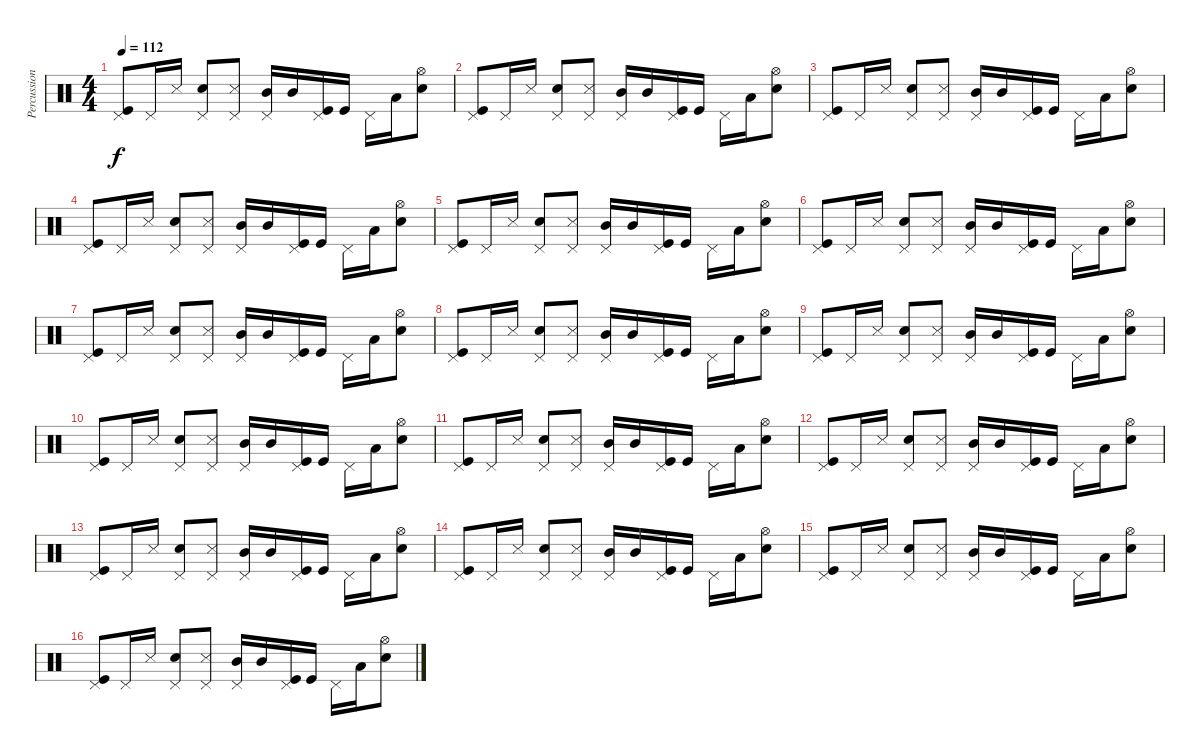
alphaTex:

\track ("Percussion" "Percussion") {instrument percussion}
\staff {score}
\articulation defaults
\ts (4 4)
\tempo 112
\clef neutral
\ks c
("Pedal Hi-Hat (hit)" "Kick (hit)").8{dy f} "Pedal Hi-Hat (hit)".16 "Snare (side stick) 3".16 ("Pedal Hi-Hat (hit)" "Electric Snare (hit)").8 ("Pedal Hi-Hat (hit)" "Snare (side stick) 3").8 ("Pedal Hi-Hat (hit)" "Mid Tom (hit)").16 "Mid Tom (hit)".16 ("Pedal Hi-Hat (hit)" "Kick (hit)").16 "Kick (hit)".16 "Pedal Hi-Hat (hit)".16 "Low Tom (hit)".16 ("Hi-Hat (open)" "Electric Snare (hit)").8 |
("Pedal Hi-Hat (hit)" "Kick (hit)").8 "Pedal Hi-Hat (hit)".16 "Snare (side stick) 3".16 ("Pedal Hi-Hat (hit)" "Electric Snare (hit)").8 ("Pedal Hi-Hat (hit)" "Snare (side stick) 3").8 ("Pedal Hi-Hat (hit)" "Mid Tom (hit)").16 "Mid Tom (hit)".16 ("Pedal Hi-Hat (hit)" "Kick (hit)").16 "Kick (hit)".16 "Pedal Hi-Hat (hit)".16 "Low Tom (hit)".16 ("Hi-Hat (open)" "Electric Snare (hit)").8 |
("Pedal Hi-Hat (hit)" "Kick (hit)").8 "Pedal Hi-Hat (hit)".16 "Snare (side stick) 3".16 ("Pedal Hi-Hat (hit)" "Electric Snare (hit)").8 ("Pedal Hi-Hat (hit)" "Snare (side stick) 3").8 ("Pedal Hi-Hat (hit)" "Mid Tom (hit)").16 "Mid Tom (hit)".16 ("Pedal Hi-Hat (hit)" "Kick (hit)").16 "Kick (hit)".16 "Pedal Hi-Hat (hit)".16 "Low Tom (hit)".16 ("Hi-Hat (open)" "Electric Snare (hit)").8 |
("Pedal Hi-Hat (hit)" "Kick (hit)").8 "Pedal Hi-Hat (hit)".16 "Snare (side stick) 3".16 ("Pedal Hi-Hat (hit)" "Electric Snare (hit)").8 ("Pedal Hi-Hat (hit)" "Snare (side stick) 3").8 ("Pedal Hi-Hat (hit)" "Mid Tom (hit)").16 "Mid Tom (hit)".16 ("Pedal Hi-Hat (hit)" "Kick (hit)").16 "Kick (hit)".16 "Pedal Hi-Hat (hit)".16 "Low Tom (hit)".16 ("Hi-Hat (open)" "Electric Snare (hit)").8 |
("Pedal Hi-Hat (hit)" "Kick (hit)").8 "Pedal Hi-Hat (hit)".16 "Snare (side stick) 3".16 ("Pedal Hi-Hat (hit)" "Electric Snare (hit)").8 ("Pedal Hi-Hat (hit)" "Snare (side stick) 3").8 ("Pedal Hi-Hat (hit)" "Mid Tom (hit)").16 "Mid Tom (hit)".16 ("Pedal Hi-Hat (hit)" "Kick (hit)").16 "Kick (hit)".16 "Pedal Hi-Hat (hit)".16 "Low Tom (hit)".16 ("Hi-Hat (open)" "Electric Snare (hit)").8 |
("Pedal Hi-Hat (hit)" "Kick (hit)").8 "Pedal Hi-Hat (hit)".16 "Snare (side stick) 3".16 ("Pedal Hi-Hat (hit)" "Electric Snare (hit)").8 ("Pedal Hi-Hat (hit)" "Snare (side stick) 3").8 ("Pedal Hi-Hat (hit)" "Mid Tom (hit)").16 "Mid Tom (hit)".16 ("Pedal Hi-Hat (hit)" "Kick (hit)").16 "Kick (hit)".16 "Pedal Hi-Hat (hit)".16 "Low Tom (hit)".16 ("Hi-Hat (open)" "Electric Snare (hit)").8 |
("Pedal Hi-Hat (hit)" "Kick (hit)").8 "Pedal Hi-Hat (hit)".16 "Snare (side stick) 3".16 ("Pedal Hi-Hat (hit)" "Electric Snare (hit)").8 ("Pedal Hi-Hat (hit)" "Snare (side stick) 3").8 ("Pedal Hi-Hat (hit)" "Mid Tom (hit)").16 "Mid Tom (hit)".16 ("Pedal Hi-Hat (hit)" "Kick (hit)").16 "Kick (hit)".16 "Pedal Hi-Hat (hit)".16 "Low Tom (hit)".16 ("Hi-Hat (open)" "Electric Snare (hit)").8 |
("Pedal Hi-Hat (hit)" "Kick (hit)").8 "Pedal Hi-Hat (hit)".16 "Snare (side stick) 3".16 ("Pedal Hi-Hat (hit)" "Electric Snare (hit)").8 ("Pedal Hi-Hat (hit)" "Snare (side stick) 3").8 ("Pedal Hi-Hat (hit)" "Mid Tom (hit)").16 "Mid Tom (hit)".16 ("Pedal Hi-Hat (hit)" "Kick (hit)").16 "Kick (hit)".16 "Pedal Hi-Hat (hit)".16 "Low Tom (hit)".16 ("Hi-Hat (open)" "Electric Snare (hit)").8 |
("Pedal Hi-Hat (hit)" "Kick (hit)").8 "Pedal Hi-Hat (hit)".16 "Snare (side stick) 3".16 ("Pedal Hi-Hat (hit)" "Electric Snare (hit)").8 ("Pedal Hi-Hat (hit)" "Snare (side stick) 3").8 ("Pedal Hi-Hat (hit)" "Mid Tom (hit)").16 "Mid Tom (hit)".16 ("Pedal Hi-Hat (hit)" "Kick (hit)").16 "Kick (hit)".16 "Pedal Hi-Hat (hit)".16 "Low Tom (hit)".16 ("Hi-Hat (open)" "Electric Snare (hit)").8 |
("Pedal Hi-Hat (hit)" "Kick (hit)").8 "Pedal Hi-Hat (hit)".16 "Snare (side stick) 3".16 ("Pedal Hi-Hat (hit)" "Electric Snare (hit)").8 ("Pedal Hi-Hat (hit)" "Snare (side stick) 3").8 ("Pedal Hi-Hat (hit)" "Mid Tom (hit)").16 "Mid Tom (hit)".16 ("Pedal Hi-Hat (hit)" "Kick (hit)").16 "Kick (hit)".16 "Pedal Hi-Hat (hit)".16 "Low Tom (hit)".16 ("Hi-Hat (open)" "Electric Snare (hit)").8 |
("Pedal Hi-Hat (hit)" "Kick (hit)").8 "Pedal Hi-Hat (hit)".16 "Snare (side stick) 3".16 ("Pedal Hi-Hat (hit)" "Electric Snare (hit)").8 ("Pedal Hi-Hat (hit)" "Snare (side stick) 3").8 ("Pedal Hi-Hat (hit)" "Mid Tom (hit)").16 "Mid Tom (hit)".16 ("Pedal Hi-Hat (hit)" "Kick (hit)").16 "Kick (hit)".16 "Pedal Hi-Hat (hit)".16 "Low Tom (hit)".16 ("Hi-Hat (open)" "Electric Snare (hit)").8 |
("Pedal Hi-Hat (hit)" "Kick (hit)").8 "Pedal Hi-Hat (hit)".16 "Snare (side stick) 3".16 ("Pedal Hi-Hat (hit)" "Electric Snare (hit)").8 ("Pedal Hi-Hat (hit)" "Snare (side stick) 3").8 ("Pedal Hi-Hat (hit)" "Mid Tom (hit)").16 "Mid Tom (hit)".16 ("Pedal Hi-Hat (hit)" "Kick (hit)").16 "Kick (hit)".16 "Pedal Hi-Hat (hit)".16 "Low Tom (hit)".16 ("Hi-Hat (open)" "Electric Snare (hit)").8 |
("Pedal Hi-Hat (hit)" "Kick (hit)").8 "Pedal Hi-Hat (hit)".16 "Snare (side stick) 3".16 ("Pedal Hi-Hat (hit)" "Electric Snare (hit)").8 ("Pedal Hi-Hat (hit)" "Snare (side stick) 3").8 ("Pedal Hi-Hat (hit)" "Mid Tom (hit)").16 "Mid Tom (hit)".16 ("Pedal Hi-Hat (hit)" "Kick (hit)").16 "Kick (hit)".16 "Pedal Hi-Hat (hit)".16 "Low Tom (hit)".16 ("Hi-Hat (open)" "Electric Snare (hit)").8 |
("Pedal Hi-Hat (hit)" "Kick (hit)").8 "Pedal Hi-Hat (hit)".16 "Snare (side stick) 3".16 ("Pedal Hi-Hat (hit)" "Electric Snare (hit)").8 ("Pedal Hi-Hat (hit)" "Snare (side stick) 3").8 ("Pedal Hi-Hat (hit)" "Mid Tom (hit)").16 "Mid Tom (hit)".16 ("Pedal Hi-Hat (hit)" "Kick (hit)").16 "Kick (hit)".16 "Pedal Hi-Hat (hit)".16 "Low Tom (hit)".16 ("Hi-Hat (open)" "Electric Snare (hit)").8 |
("Pedal Hi-Hat (hit)" "Kick (hit)").8 "Pedal Hi-Hat (hit)".16 "Snare (side stick) 3".16 ("Pedal Hi-Hat (hit)" "Electric Snare (hit)").8 ("Pedal Hi-Hat (hit)" "Snare (side stick) 3").8 ("Pedal Hi-Hat (hit)" "Mid Tom (hit)").16 "Mid Tom (hit)".16 ("Pedal Hi-Hat (hit)" "Kick (hit)").16 "Kick (hit)".16 "Pedal Hi-Hat (hit)".16 "Low Tom (hit)".16 ("Hi-Hat (open)" "Electric Snare (hit)").8 |
("Pedal Hi-Hat (hit)" "Kick (hit)").8 "Pedal Hi-Hat (hit)".16 "Snare (side stick) 3".16 ("Pedal Hi-Hat (hit)" "Electric Snare (hit)").8 ("Pedal Hi-Hat (hit)" "Snare (side stick) 3").8 ("Pedal Hi-Hat (hit)" "Mid Tom (hit)").16 "Mid Tom (hit)".16 ("Pedal Hi-Hat (hit)" "Kick (hit)").16 "Kick (hit)".16 "Pedal Hi-Hat (hit)".16 "Low Tom (hit)".16 ("Hi-Hat (open)" "Electric Snare (hit)").8
